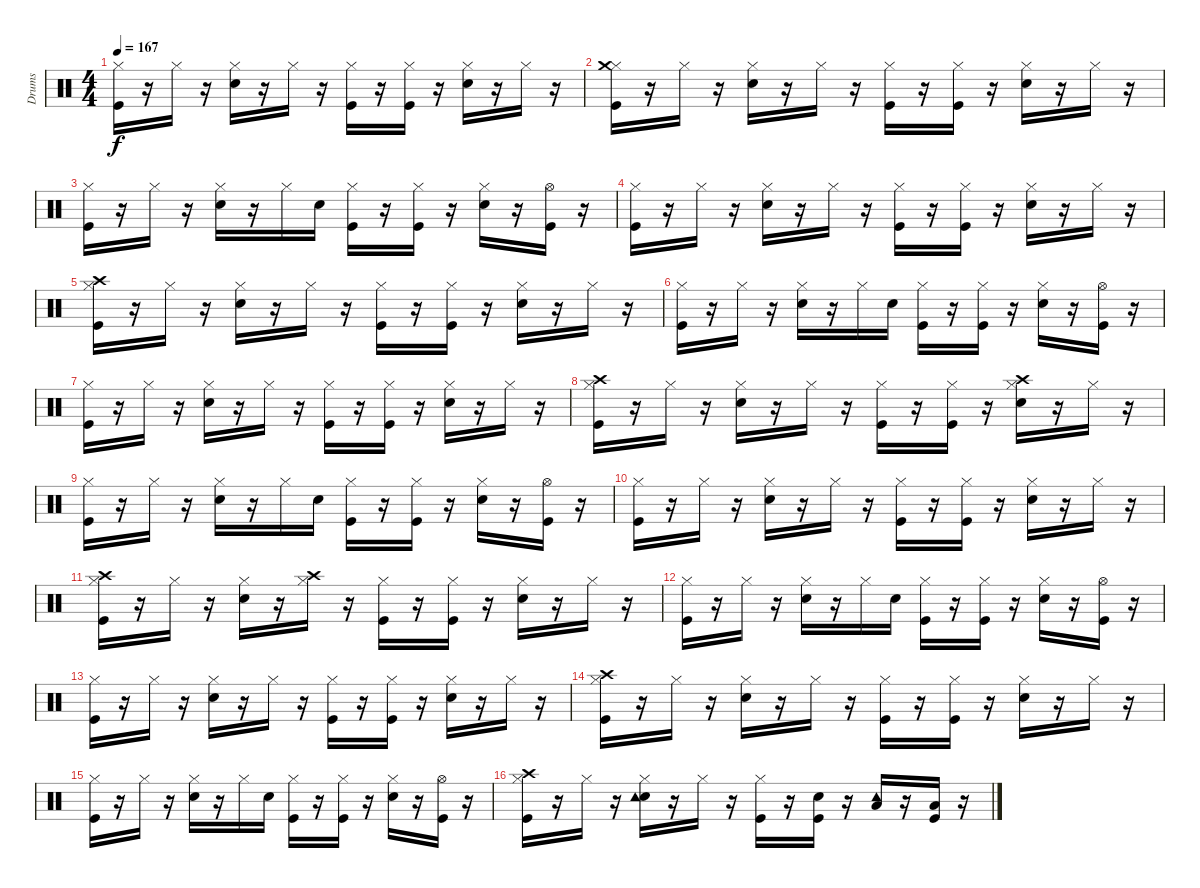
\track ("Drums" "Drums") {instrument percussion}
\staff {score}
\articulation defaults
\ts (4 4)
\tempo 167
\clef neutral
\ks c
("Kick (hit)" "Hi-Hat (closed)").16{dy f} r.16 "Hi-Hat (closed)".16 r.16 ("Snare (hit) 2" "Hi-Hat (closed)").16 r.16 "Hi-Hat (closed)".16 r.16 ("Kick (hit)" "Hi-Hat (closed)").16 r.16 ("Kick (hit)" "Hi-Hat (closed)").16 r.16 ("Snare (hit) 2" "Hi-Hat (closed)").16 r.16 "Hi-Hat (closed)".16 r.16 |
("Kick (hit)" "Hi-Hat (closed)" "Crash medium (hit)").16 r.16 "Hi-Hat (closed)".16 r.16 ("Snare (hit) 2" "Hi-Hat (closed)").16 r.16 "Hi-Hat (closed)".16 r.16 ("Kick (hit)" "Hi-Hat (closed)").16 r.16 ("Kick (hit)" "Hi-Hat (closed)").16 r.16 ("Snare (hit) 2" "Hi-Hat (closed)").16 r.16 "Hi-Hat (closed)".16 r.16 |
("Kick (hit)" "Hi-Hat (closed)").16 r.16 "Hi-Hat (closed)".16 r.16 ("Snare (hit) 2" "Hi-Hat (closed)").16 r.16 "Hi-Hat (closed)".16 "Snare (hit) 2".16 ("Kick (hit)" "Hi-Hat (closed)").16 r.16 ("Kick (hit)" "Hi-Hat (closed)").16 r.16 ("Snare (hit) 2" "Hi-Hat (closed)").16 r.16 ("Kick (hit)" "Hi-Hat (open)").16 r.16 |
("Kick (hit)" "Hi-Hat (closed)").16 r.16 "Hi-Hat (closed)".16 r.16 ("Snare (hit) 2" "Hi-Hat (closed)").16 r.16 "Hi-Hat (closed)".16 r.16 ("Kick (hit)" "Hi-Hat (closed)").16 r.16 ("Kick (hit)" "Hi-Hat (closed)").16 r.16 ("Snare (hit) 2" "Hi-Hat (closed)").16 r.16 "Hi-Hat (closed)".16 r.16 |
("Kick (hit)" "Hi-Hat (closed)" "Crash high (hit)").16 r.16 "Hi-Hat (closed)".16 r.16 ("Snare (hit) 2" "Hi-Hat (closed)").16 r.16 "Hi-Hat (closed)".16 r.16 ("Kick (hit)" "Hi-Hat (closed)").16 r.16 ("Kick (hit)" "Hi-Hat (closed)").16 r.16 ("Snare (hit) 2" "Hi-Hat (closed)").16 r.16 "Hi-Hat (closed)".16 r.16 |
("Kick (hit)" "Hi-Hat (closed)").16 r.16 "Hi-Hat (closed)".16 r.16 ("Snare (hit) 2" "Hi-Hat (closed)").16 r.16 "Hi-Hat (closed)".16 "Snare (hit) 2".16 ("Kick (hit)" "Hi-Hat (closed)").16 r.16 ("Kick (hit)" "Hi-Hat (closed)").16 r.16 ("Snare (hit) 2" "Hi-Hat (closed)").16 r.16 ("Kick (hit)" "Hi-Hat (open)").16 r.16 |
("Kick (hit)" "Hi-Hat (closed)").16 r.16 "Hi-Hat (closed)".16 r.16 ("Snare (hit) 2" "Hi-Hat (closed)").16 r.16 "Hi-Hat (closed)".16 r.16 ("Kick (hit)" "Hi-Hat (closed)").16 r.16 ("Kick (hit)" "Hi-Hat (closed)").16 r.16 ("Snare (hit) 2" "Hi-Hat (closed)").16 r.16 "Hi-Hat (closed)".16 r.16 |
("Kick (hit)" "Hi-Hat (closed)" "Crash high (hit)").16 r.16 "Hi-Hat (closed)".16 r.16 ("Snare (hit) 2" "Hi-Hat (closed)").16 r.16 "Hi-Hat (closed)".16 r.16 ("Kick (hit)" "Hi-Hat (closed)").16 r.16 ("Kick (hit)" "Hi-Hat (closed)").16 r.16 ("Crash high (hit)" "Snare (hit) 2" "Hi-Hat (closed)").16 r.16 "Hi-Hat (closed)".16 r.16 |
("Kick (hit)" "Hi-Hat (closed)").16 r.16 "Hi-Hat (closed)".16 r.16 ("Snare (hit) 2" "Hi-Hat (closed)").16 r.16 "Hi-Hat (closed)".16 "Snare (hit) 2".16 ("Kick (hit)" "Hi-Hat (closed)").16 r.16 ("Kick (hit)" "Hi-Hat (closed)").16 r.16 ("Snare (hit) 2" "Hi-Hat (closed)").16 r.16 ("Kick (hit)" "Hi-Hat (open)").16 r.16 |
("Kick (hit)" "Hi-Hat (closed)").16 r.16 "Hi-Hat (closed)".16 r.16 ("Snare (hit) 2" "Hi-Hat (closed)").16 r.16 "Hi-Hat (closed)".16 r.16 ("Kick (hit)" "Hi-Hat (closed)").16 r.16 ("Kick (hit)" "Hi-Hat (closed)").16 r.16 ("Snare (hit) 2" "Hi-Hat (closed)").16 r.16 "Hi-Hat (closed)".16 r.16 |
("Kick (hit)" "Hi-Hat (closed)" "Crash high (hit)").16 r.16 "Hi-Hat (closed)".16 r.16 ("Snare (hit) 2" "Hi-Hat (closed)").16 r.16 ("Crash high (hit)" "Hi-Hat (closed)").16 r.16 ("Kick (hit)" "Hi-Hat (closed)").16 r.16 ("Kick (hit)" "Hi-Hat (closed)").16 r.16 ("Snare (hit) 2" "Hi-Hat (closed)").16 r.16 "Hi-Hat (closed)".16 r.16 |
("Kick (hit)" "Hi-Hat (closed)").16 r.16 "Hi-Hat (closed)".16 r.16 ("Snare (hit) 2" "Hi-Hat (closed)").16 r.16 "Hi-Hat (closed)".16 "Snare (hit) 2".16 ("Kick (hit)" "Hi-Hat (closed)").16 r.16 ("Kick (hit)" "Hi-Hat (closed)").16 r.16 ("Snare (hit) 2" "Hi-Hat (closed)").16 r.16 ("Kick (hit)" "Hi-Hat (open)").16 r.16 |
("Kick (hit)" "Hi-Hat (closed)").16 r.16 "Hi-Hat (closed)".16 r.16 ("Snare (hit) 2" "Hi-Hat (closed)").16 r.16 "Hi-Hat (closed)".16 r.16 ("Kick (hit)" "Hi-Hat (closed)").16 r.16 ("Kick (hit)" "Hi-Hat (closed)").16 r.16 ("Snare (hit) 2" "Hi-Hat (closed)").16 r.16 "Hi-Hat (closed)".16 r.16 |
("Kick (hit)" "Hi-Hat (closed)" "Crash high (hit)").16 r.16 "Hi-Hat (closed)".16 r.16 ("Snare (hit) 2" "Hi-Hat (closed)").16 r.16 "Hi-Hat (closed)".16 r.16 ("Kick (hit)" "Hi-Hat (closed)").16 r.16 ("Kick (hit)" "Hi-Hat (closed)").16 r.16 ("Snare (hit) 2" "Hi-Hat (closed)").16 r.16 "Hi-Hat (closed)".16 r.16 |
("Kick (hit)" "Hi-Hat (closed)").16 r.16 "Hi-Hat (closed)".16 r.16 ("Snare (hit) 2" "Hi-Hat (closed)").16 r.16 "Hi-Hat (closed)".16 "Snare (hit) 2".16 ("Kick (hit)" "Hi-Hat (closed)").16 r.16 ("Kick (hit)" "Hi-Hat (closed)").16 r.16 ("Snare (hit) 2" "Hi-Hat (closed)").16 r.16 ("Kick (hit)" "Hi-Hat (open)").16 r.16 |
("Kick (hit)" "Hi-Hat (closed)" "Crash high (hit)").16 r.16 "Hi-Hat (closed)".16 r.16 ("Snare (hit) 2" "Hi-Hat (closed)" "Tambourine (hit)").16 r.16 "Hi-Hat (closed)".16 r.16 ("Kick (hit)" "Hi-Hat (closed)").16 r.16 ("Kick (hit)" "Snare (hit) 2").16 r.16 ("Low Floor Tom (hit)" "Tambourine (hit)").16 r.16 ("Kick (hit)" "Low Floor Tom (hit)").16 r.16
